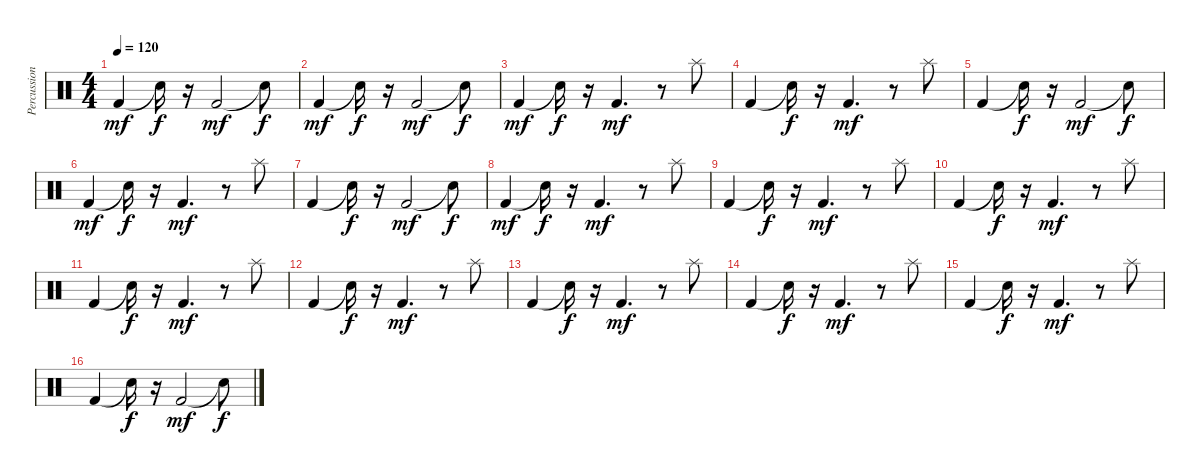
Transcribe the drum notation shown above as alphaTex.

\track ("Percussions" "Percussion") {instrument percussion}
\staff {score}
\articulation defaults
\ts (4 4)
\tempo 120
\clef neutral
\ks c "Kick (hit) 2".4{dy mf} "Snare (hit)"{t}.16{dy f}
r.16 "Kick (hit) 2".2{dy mf} "Snare (hit)"{t}.8{dy f} |
"Kick (hit) 2".4{dy mf} "Snare (hit)"{t}.16{dy f} r.16 "Kick (hit) 2".2{dy mf} "Snare (hit)"{t}.8{dy f} |
"Kick (hit) 2".4{dy mf} "Snare (hit)"{t}.16{dy f} r.16 "Kick (hit) 2".4{d dy mf} r.8 "Splash (hit)".8 |
"Kick (hit) 2".4 "Snare (hit)"{t}.16{dy f} r.16 "Kick (hit) 2".4{d dy mf} r.8 "Splash (hit)".8 |
"Kick (hit) 2".4 "Snare (hit)"{t}.16{dy f} r.16 "Kick (hit) 2".2{dy mf} "Snare (hit)"{t}.8{dy f} |
"Kick (hit) 2".4{dy mf} "Snare (hit)"{t}.16{dy f} r.16 "Kick (hit) 2".4{d dy mf} r.8 "Splash (hit)".8 |
"Kick (hit) 2".4 "Snare (hit)"{t}.16{dy f} r.16 "Kick (hit) 2".2{dy mf} "Snare (hit)"{t}.8{dy f} |
"Kick (hit) 2".4{dy mf} "Snare (hit)"{t}.16{dy f} r.16 "Kick (hit) 2".4{d dy mf} r.8 "Splash (hit)".8 |
"Kick (hit) 2".4 "Snare (hit)"{t}.16{dy f} r.16 "Kick (hit) 2".4{d dy mf} r.8 "Splash (hit)".8 |
"Kick (hit) 2".4 "Snare (hit)"{t}.16{dy f} r.16 "Kick (hit) 2".4{d dy mf} r.8 "Splash (hit)".8 |
"Kick (hit) 2".4 "Snare (hit)"{t}.16{dy f} r.16 "Kick (hit) 2".4{d dy mf} r.8 "Splash (hit)".8 |
"Kick (hit) 2".4 "Snare (hit)"{t}.16{dy f} r.16 "Kick (hit) 2".4{d dy mf} r.8 "Splash (hit)".8 |
"Kick (hit) 2".4 "Snare (hit)"{t}.16{dy f} r.16 "Kick (hit) 2".4{d dy mf} r.8 "Splash (hit)".8 |
"Kick (hit) 2".4 "Snare (hit)"{t}.16{dy f} r.16 "Kick (hit) 2".4{d dy mf} r.8 "Splash (hit)".8 |
"Kick (hit) 2".4 "Snare (hit)"{t}.16{dy f} r.16 "Kick (hit) 2".4{d dy mf} r.8 "Splash (hit)".8 |
"Kick (hit) 2".4 "Snare (hit)"{t}.16{dy f} r.16 "Kick (hit) 2".2{dy mf} "Snare (hit)"{t}.8{dy f}
